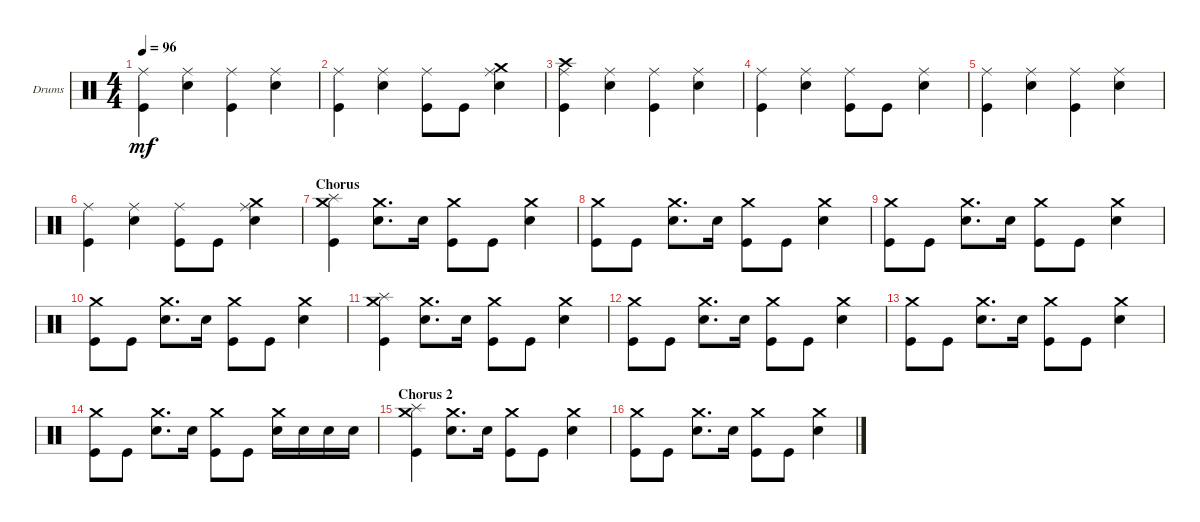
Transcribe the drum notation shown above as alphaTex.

\defaultSystemsLayout 4
\bracketExtendMode groupsimilarinstruments
\firstSystemTrackNameOrientation horizontal
\otherSystemsTrackNameOrientation horizontal
\track ("Tico" "Drums") {instrument percussion}
\staff {score}
\articulation defaults
\ts (4 4)
\tempo 96
\clef neutral
\ks c
("Kick (hit)" "Ride (middle)").4{dy mf} ("Snare (hit) 2" "Ride (middle)").4 ("Ride (middle)" "Kick (hit)").4 ("Ride (middle)" "Snare (hit) 2").4 |
("Kick (hit)" "Ride (middle)").4 ("Snare (hit) 2" "Ride (middle)").4 ("Ride (middle)" "Kick (hit)").8 "Kick (hit)".8 ("Ride (middle)" "Snare (hit) 2" "Crash medium (hit)").4 |
("Kick (hit)" "Ride (middle)" "Crash high (hit)").4 ("Snare (hit) 2" "Ride (middle)").4 ("Ride (middle)" "Kick (hit)").4 ("Ride (middle)" "Snare (hit) 2").4 |
("Kick (hit)" "Ride (middle)").4 ("Snare (hit) 2" "Ride (middle)").4 ("Ride (middle)" "Kick (hit)").8 "Kick (hit)".8 ("Ride (middle)" "Snare (hit) 2").4 |
("Kick (hit)" "Ride (middle)").4 ("Snare (hit) 2" "Ride (middle)").4 ("Ride (middle)" "Kick (hit)").4 ("Ride (middle)" "Snare (hit) 2").4 |
("Kick (hit)" "Ride (middle)").4 ("Snare (hit) 2" "Ride (middle)").4 ("Ride (middle)" "Kick (hit)").8 "Kick (hit)".8 ("Ride (middle)" "Snare (hit) 2" "Crash medium (hit)").4 |
\section ("" "Chorus")
("Kick (hit)" "Splash (hit)" "Crash medium (hit)").4 ("Snare (hit) 2" "Crash medium (hit)").8{d} "Snare (hit) 2".16 ("Kick (hit)" "Crash medium (hit)").8 "Kick (hit)".8 ("Snare (hit) 2" "Crash medium (hit)").4 |
("Kick (hit)" "Crash medium (hit)").8 "Kick (hit)".8 ("Snare (hit) 2" "Crash medium (hit)").8{d} "Snare (hit) 2".16 ("Kick (hit)" "Crash medium (hit)").8 "Kick (hit)".8 ("Snare (hit) 2" "Crash medium (hit)").4 |
("Kick (hit)" "Crash medium (hit)").8 "Kick (hit)".8 ("Snare (hit) 2" "Crash medium (hit)").8{d} "Snare (hit) 2".16 ("Kick (hit)" "Crash medium (hit)").8 "Kick (hit)".8 ("Snare (hit) 2" "Crash medium (hit)").4 |
("Kick (hit)" "Crash medium (hit)").8 "Kick (hit)".8 ("Snare (hit) 2" "Crash medium (hit)").8{d} "Snare (hit) 2".16 ("Kick (hit)" "Crash medium (hit)").8 "Kick (hit)".8 ("Snare (hit) 2" "Crash medium (hit)").4 |
("Kick (hit)" "Splash (hit)" "Crash medium (hit)").4 ("Snare (hit) 2" "Crash medium (hit)").8{d} "Snare (hit) 2".16 ("Kick (hit)" "Crash medium (hit)").8 "Kick (hit)".8 ("Snare (hit) 2" "Crash medium (hit)").4 |
("Kick (hit)" "Crash medium (hit)").8 "Kick (hit)".8 ("Snare (hit) 2" "Crash medium (hit)").8{d} "Snare (hit) 2".16 ("Kick (hit)" "Crash medium (hit)").8 "Kick (hit)".8 ("Snare (hit) 2" "Crash medium (hit)").4 |
("Kick (hit)" "Crash medium (hit)").8 "Kick (hit)".8 ("Snare (hit) 2" "Crash medium (hit)").8{d} "Snare (hit) 2".16 ("Kick (hit)" "Crash medium (hit)").8 "Kick (hit)".8 ("Snare (hit) 2" "Crash medium (hit)").4 |
("Kick (hit)" "Crash medium (hit)").8 "Kick (hit)".8 ("Snare (hit) 2" "Crash medium (hit)").8{d} "Snare (hit) 2".16 ("Kick (hit)" "Crash medium (hit)").8 "Kick (hit)".8 ("Snare (hit) 2" "Crash medium (hit)").16 "Snare (hit) 2".16 "Snare (hit) 2".16 "Snare (hit) 2".16 |
\section ("" "Chorus 2")
("Kick (hit)" "Splash (hit)" "Crash medium (hit)").4 ("Snare (hit) 2" "Crash medium (hit)").8{d} "Snare (hit) 2".16 ("Kick (hit)" "Crash medium (hit)").8 "Kick (hit)".8 ("Snare (hit) 2" "Crash medium (hit)").4 |
("Kick (hit)" "Crash medium (hit)").8 "Kick (hit)".8 ("Snare (hit) 2" "Crash medium (hit)").8{d} "Snare (hit) 2".16 ("Kick (hit)" "Crash medium (hit)").8 "Kick (hit)".8 ("Snare (hit) 2" "Crash medium (hit)").4
